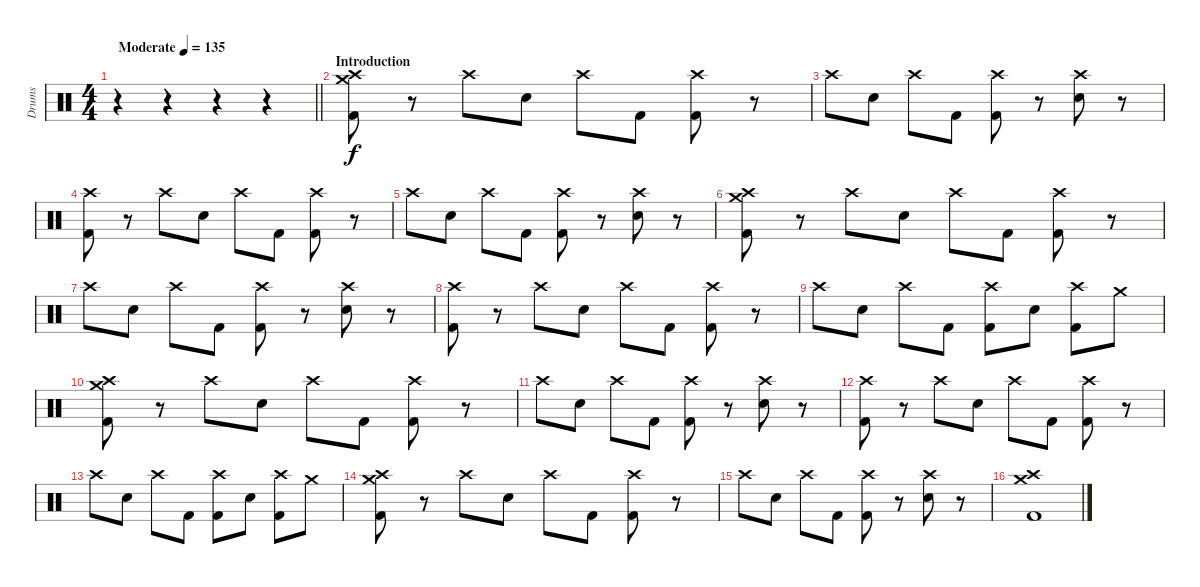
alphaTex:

\track ("Drums" "Drums") {instrument percussion}
\staff {score}
\articulation defaults
\ts (4 4)
\tempo (135 "Moderate")
\clef neutral
\barLineRight lightlight
\ks c
r.4{dy f} r.4 r.4 r.4 |
\section ("" "Introduction")
("Crash high (hit)" "Crash medium (hit)" "Kick (hit) 2").8 r.8 "Crash high (hit)".8 "Electric Snare (hit)".8 "Crash high (hit)".8 "Kick (hit) 2".8 ("Crash high (hit)" "Kick (hit) 2").8 r.8 |
"Crash high (hit)".8 "Electric Snare (hit)".8 "Crash high (hit)".8 "Kick (hit) 2".8 ("Crash high (hit)" "Kick (hit) 2").8 r.8 ("Crash high (hit)" "Electric Snare (hit)").8 r.8 |
("Crash high (hit)" "Kick (hit) 2").8 r.8 "Crash high (hit)".8 "Electric Snare (hit)".8 "Crash high (hit)".8 "Kick (hit) 2".8 ("Crash high (hit)" "Kick (hit) 2").8 r.8 |
"Crash high (hit)".8 "Electric Snare (hit)".8 "Crash high (hit)".8 "Kick (hit) 2".8 ("Crash high (hit)" "Kick (hit) 2").8 r.8 ("Crash high (hit)" "Electric Snare (hit)").8 r.8 |
("Crash high (hit)" "Crash medium (hit)" "Kick (hit) 2").8 r.8 "Crash high (hit)".8 "Electric Snare (hit)".8 "Crash high (hit)".8 "Kick (hit) 2".8 ("Crash high (hit)" "Kick (hit) 2").8 r.8 |
"Crash high (hit)".8 "Electric Snare (hit)".8 "Crash high (hit)".8 "Kick (hit) 2".8 ("Crash high (hit)" "Kick (hit) 2").8 r.8 ("Crash high (hit)" "Electric Snare (hit)").8 r.8 |
("Crash high (hit)" "Kick (hit) 2").8 r.8 "Crash high (hit)".8 "Electric Snare (hit)".8 "Crash high (hit)".8 "Kick (hit) 2".8 ("Crash high (hit)" "Kick (hit) 2").8 r.8 |
"Crash high (hit)".8 "Electric Snare (hit)".8 "Crash high (hit)".8 "Kick (hit) 2".8 ("Crash high (hit)" "Kick (hit) 2").8 "Electric Snare (hit)".8 ("Crash high (hit)" "Kick (hit) 2").8 "Crash medium (hit)".8 |
("Crash high (hit)" "Crash medium (hit)" "Kick (hit) 2").8 r.8 "Crash high (hit)".8 "Electric Snare (hit)".8 "Crash high (hit)".8 "Kick (hit) 2".8 ("Crash high (hit)" "Kick (hit) 2").8 r.8 |
"Crash high (hit)".8 "Electric Snare (hit)".8 "Crash high (hit)".8 "Kick (hit) 2".8 ("Crash high (hit)" "Kick (hit) 2").8 r.8 ("Crash high (hit)" "Electric Snare (hit)").8 r.8 |
("Crash high (hit)" "Kick (hit) 2").8 r.8 "Crash high (hit)".8 "Electric Snare (hit)".8 "Crash high (hit)".8 "Kick (hit) 2".8 ("Crash high (hit)" "Kick (hit) 2").8 r.8 |
"Crash high (hit)".8 "Electric Snare (hit)".8 "Crash high (hit)".8 "Kick (hit) 2".8 ("Crash high (hit)" "Kick (hit) 2").8 "Electric Snare (hit)".8 ("Crash high (hit)" "Kick (hit) 2").8 "Crash medium (hit)".8 |
("Crash high (hit)" "Crash medium (hit)" "Kick (hit) 2").8 r.8 "Crash high (hit)".8 "Electric Snare (hit)".8 "Crash high (hit)".8 "Kick (hit) 2".8 ("Crash high (hit)" "Kick (hit) 2").8 r.8 |
"Crash high (hit)".8 "Electric Snare (hit)".8 "Crash high (hit)".8 "Kick (hit) 2".8 ("Crash high (hit)" "Kick (hit) 2").8 r.8 ("Crash high (hit)" "Electric Snare (hit)").8 r.8 |
("Crash high (hit)" "Crash medium (hit)" "Kick (hit) 2").1
